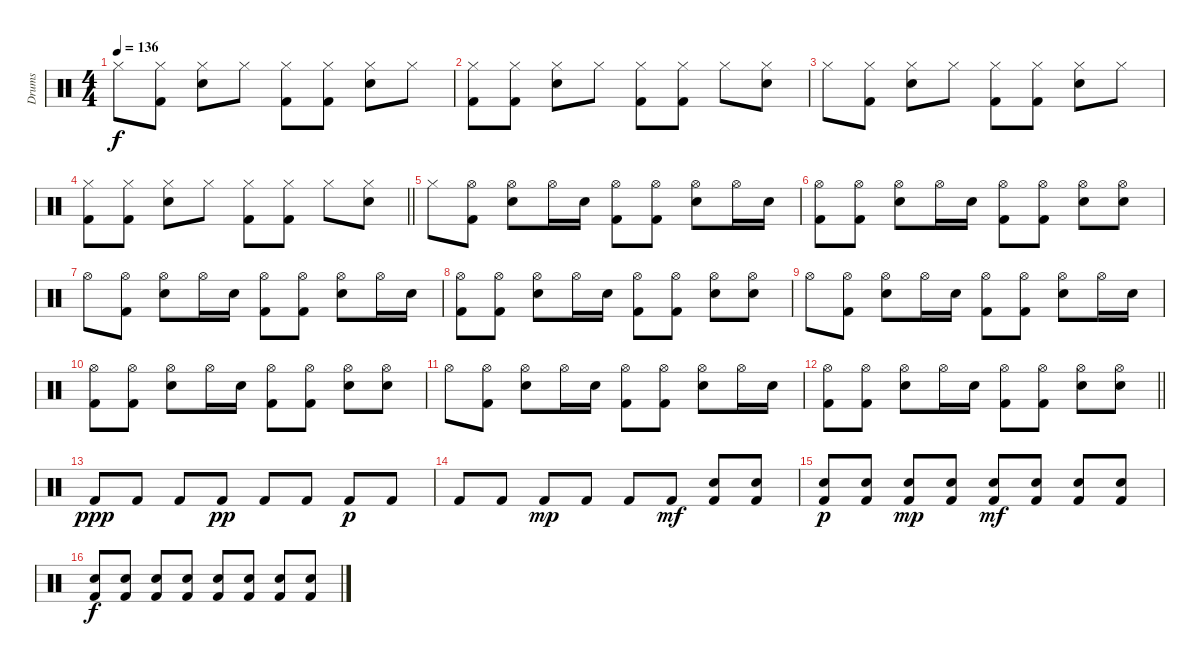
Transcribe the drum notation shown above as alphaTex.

\track ("Drums" "Drums") {instrument percussion}
\staff {score}
\articulation defaults
\ts (4 4)
\tempo 136
\clef neutral
\ks c "Hi-Hat (closed)".8{dy f}
("Hi-Hat (closed)" "Kick (hit) 2").8 ("Hi-Hat (closed)" "Snare (hit) 2").8 "Hi-Hat (closed)".8 ("Hi-Hat (closed)" "Kick (hit) 2").8 ("Hi-Hat (closed)" "Kick (hit) 2").8 ("Hi-Hat (closed)" "Snare (hit) 2").8 "Hi-Hat (closed)".8 |
("Hi-Hat (closed)" "Kick (hit) 2").8 ("Hi-Hat (closed)" "Kick (hit) 2").8 ("Hi-Hat (closed)" "Snare (hit) 2").8 "Hi-Hat (closed)".8 ("Hi-Hat (closed)" "Kick (hit) 2").8 ("Hi-Hat (closed)" "Kick (hit) 2").8 "Hi-Hat (closed)".8 ("Hi-Hat (closed)" "Snare (hit) 2").8 |
"Hi-Hat (closed)".8 ("Hi-Hat (closed)" "Kick (hit) 2").8 ("Hi-Hat (closed)" "Snare (hit) 2").8 "Hi-Hat (closed)".8 ("Hi-Hat (closed)" "Kick (hit) 2").8 ("Hi-Hat (closed)" "Kick (hit) 2").8 ("Hi-Hat (closed)" "Snare (hit) 2").8 "Hi-Hat (closed)".8 |
\barLineRight lightlight
("Hi-Hat (closed)" "Kick (hit) 2").8 ("Hi-Hat (closed)" "Kick (hit) 2").8 ("Hi-Hat (closed)" "Snare (hit) 2").8 "Hi-Hat (closed)".8 ("Hi-Hat (closed)" "Kick (hit) 2").8 ("Hi-Hat (closed)" "Kick (hit) 2").8 "Hi-Hat (closed)".8 ("Hi-Hat (closed)" "Snare (hit) 2").8 |
\section ("" "")
"Hi-Hat (closed)".8 ("Hi-Hat (open)" "Kick (hit) 2").8 ("Hi-Hat (open)" "Snare (hit) 2").8 "Hi-Hat (open)".16 "Snare (hit) 2".16 ("Hi-Hat (open)" "Kick (hit) 2").8 ("Hi-Hat (open)" "Kick (hit) 2").8 ("Hi-Hat (open)" "Snare (hit) 2").8 "Hi-Hat (open)".16 "Snare (hit) 2".16 |
("Hi-Hat (open)" "Kick (hit) 2").8 ("Hi-Hat (open)" "Kick (hit) 2").8 ("Hi-Hat (open)" "Snare (hit) 2").8 "Hi-Hat (open)".16 "Snare (hit) 2".16 ("Hi-Hat (open)" "Kick (hit) 2").8 ("Hi-Hat (open)" "Kick (hit) 2").8 ("Hi-Hat (open)" "Snare (hit) 2").8 ("Hi-Hat (open)" "Snare (hit) 2").8 |
"Hi-Hat (open)".8 ("Hi-Hat (open)" "Kick (hit) 2").8 ("Hi-Hat (open)" "Snare (hit) 2").8 "Hi-Hat (open)".16 "Snare (hit) 2".16 ("Hi-Hat (open)" "Kick (hit) 2").8 ("Hi-Hat (open)" "Kick (hit) 2").8 ("Hi-Hat (open)" "Snare (hit) 2").8 "Hi-Hat (open)".16 "Snare (hit) 2".16 |
("Hi-Hat (open)" "Kick (hit) 2").8 ("Hi-Hat (open)" "Kick (hit) 2").8 ("Hi-Hat (open)" "Snare (hit) 2").8 "Hi-Hat (open)".16 "Snare (hit) 2".16 ("Hi-Hat (open)" "Kick (hit) 2").8 ("Hi-Hat (open)" "Kick (hit) 2").8 ("Hi-Hat (open)" "Snare (hit) 2").8 ("Hi-Hat (open)" "Snare (hit) 2").8 |
"Hi-Hat (open)".8 ("Hi-Hat (open)" "Kick (hit) 2").8 ("Hi-Hat (open)" "Snare (hit) 2").8 "Hi-Hat (open)".16 "Snare (hit) 2".16 ("Hi-Hat (open)" "Kick (hit) 2").8 ("Hi-Hat (open)" "Kick (hit) 2").8 ("Hi-Hat (open)" "Snare (hit) 2").8 "Hi-Hat (open)".16 "Snare (hit) 2".16 |
("Hi-Hat (open)" "Kick (hit) 2").8 ("Hi-Hat (open)" "Kick (hit) 2").8 ("Hi-Hat (open)" "Snare (hit) 2").8 "Hi-Hat (open)".16 "Snare (hit) 2".16 ("Hi-Hat (open)" "Kick (hit) 2").8 ("Hi-Hat (open)" "Kick (hit) 2").8 ("Hi-Hat (open)" "Snare (hit) 2").8 ("Hi-Hat (open)" "Snare (hit) 2").8 |
"Hi-Hat (open)".8 ("Hi-Hat (open)" "Kick (hit) 2").8 ("Hi-Hat (open)" "Snare (hit) 2").8 "Hi-Hat (open)".16 "Snare (hit) 2".16 ("Hi-Hat (open)" "Kick (hit) 2").8 ("Hi-Hat (open)" "Kick (hit) 2").8 ("Hi-Hat (open)" "Snare (hit) 2").8 "Hi-Hat (open)".16 "Snare (hit) 2".16 |
\barLineRight lightlight
("Hi-Hat (open)" "Kick (hit) 2").8 ("Hi-Hat (open)" "Kick (hit) 2").8 ("Hi-Hat (open)" "Snare (hit) 2").8 "Hi-Hat (open)".16 "Snare (hit) 2".16 ("Hi-Hat (open)" "Kick (hit) 2").8 ("Hi-Hat (open)" "Kick (hit) 2").8 ("Hi-Hat (open)" "Snare (hit) 2").8 ("Hi-Hat (open)" "Snare (hit) 2").8 |
\section ("" "")
"Kick (hit) 2".8{dy ppp} "Kick (hit) 2".8 "Kick (hit) 2".8 "Kick (hit) 2".8{dy pp} "Kick (hit) 2".8 "Kick (hit) 2".8 "Kick (hit) 2".8{dy p} "Kick (hit) 2".8 |
"Kick (hit) 2".8 "Kick (hit) 2".8 "Kick (hit) 2".8{dy mp} "Kick (hit) 2".8 "Kick (hit) 2".8 "Kick (hit) 2".8{dy mf} ("Snare (hit) 2" "Kick (hit) 2").8 ("Snare (hit) 2" "Kick (hit) 2").8 |
("Snare (hit) 2" "Kick (hit) 2").8{dy p} ("Snare (hit) 2" "Kick (hit) 2").8 ("Snare (hit) 2" "Kick (hit) 2").8{dy mp} ("Snare (hit) 2" "Kick (hit) 2").8 ("Snare (hit) 2" "Kick (hit) 2").8{dy mf} ("Snare (hit) 2" "Kick (hit) 2").8 ("Snare (hit) 2" "Kick (hit) 2").8 ("Snare (hit) 2" "Kick (hit) 2").8 |
("Snare (hit) 2" "Kick (hit) 2").8{dy f} ("Snare (hit) 2" "Kick (hit) 2").8 ("Snare (hit) 2" "Kick (hit) 2").8 ("Snare (hit) 2" "Kick (hit) 2").8 ("Snare (hit) 2" "Kick (hit) 2").8 ("Snare (hit) 2" "Kick (hit) 2").8 ("Snare (hit) 2" "Kick (hit) 2").8 ("Snare (hit) 2" "Kick (hit) 2").8
